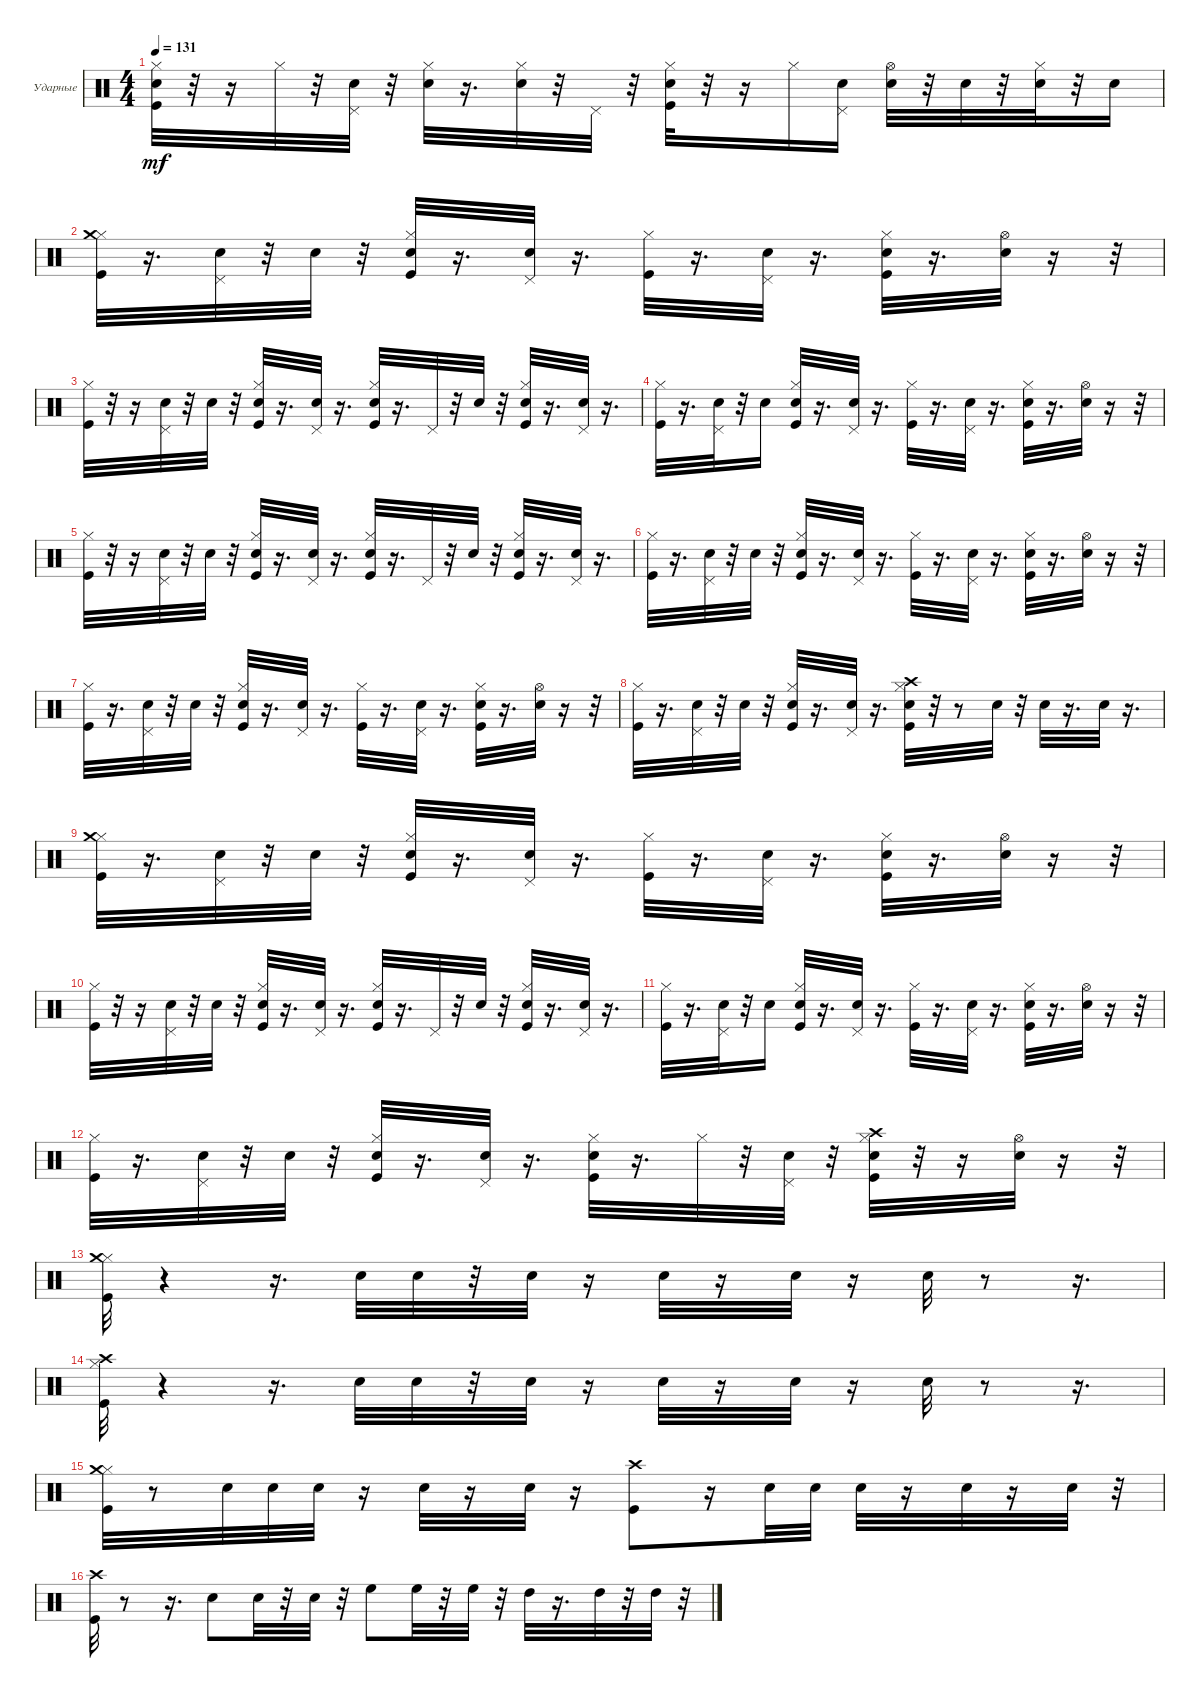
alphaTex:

\bracketExtendMode groupsimilarinstruments
\firstSystemTrackNameOrientation horizontal
\otherSystemsTrackNameOrientation horizontal
\track ("Ударные" "Ударные") {instrument percussion}
\staff {score}
\articulation defaults
\ts (4 4)
\tempo 131
\clef neutral
\ks c
("Snare (hit) 2" "Hi-Hat (closed)" "Kick (hit)").32{dy mf} r.32 r.16 "Hi-Hat (closed)".32 r.32 ("Snare (hit) 2" "Pedal Hi-Hat (hit)").32 r.32 ("Snare (hit) 2" "Hi-Hat (closed)").32 r.16{d} ("Snare (hit) 2" "Hi-Hat (closed)").32 r.32 "Pedal Hi-Hat (hit)".32 r.32 ("Snare (hit) 2" "Hi-Hat (closed)" "Kick (hit)").32 r.32 r.16 "Hi-Hat (closed)".16 ("Snare (hit) 2" "Pedal Hi-Hat (hit)").16 ("Snare (hit) 2" "Hi-Hat (open)").32 r.32 "Snare (hit) 2".32 r.32 ("Snare (hit) 2" "Hi-Hat (closed)").32 r.32 "Snare (hit) 2".16 |
("Kick (hit)" "Hi-Hat (closed)" "Crash medium (hit)").32 r.16{d} ("Snare (hit) 2" "Pedal Hi-Hat (hit)").32 r.32 "Snare (hit) 2".32 r.32 ("Hi-Hat (closed)" "Snare (hit) 2" "Kick (hit)").32 r.16{d} ("Snare (hit) 2" "Pedal Hi-Hat (hit)").32 r.16{d} ("Hi-Hat (closed)" "Kick (hit)").32 r.16{d} ("Snare (hit) 2" "Pedal Hi-Hat (hit)").32 r.16{d} ("Hi-Hat (closed)" "Snare (hit) 2" "Kick (hit)").32 r.16{d} ("Snare (hit) 2" "Hi-Hat (open)").32 r.16 r.32 |
("Hi-Hat (closed)" "Kick (hit)").32 r.32 r.16 ("Snare (hit) 2" "Pedal Hi-Hat (hit)").32 r.32 "Snare (hit) 2".32 r.32 ("Snare (hit) 2" "Hi-Hat (closed)" "Kick (hit)").32 r.16{d} ("Snare (hit) 2" "Pedal Hi-Hat (hit)").32 r.16{d} ("Snare (hit) 2" "Hi-Hat (closed)" "Kick (hit)").32 r.16{d} "Pedal Hi-Hat (hit)".32 r.32 "Snare (hit) 2".32 r.32 ("Snare (hit) 2" "Hi-Hat (closed)" "Kick (hit)").32 r.16{d} ("Snare (hit) 2" "Pedal Hi-Hat (hit)").32 r.16{d} |
("Hi-Hat (closed)" "Kick (hit)").32 r.16{d} ("Snare (hit) 2" "Pedal Hi-Hat (hit)").32 r.32 "Snare (hit) 2".16 ("Snare (hit) 2" "Hi-Hat (closed)" "Kick (hit)").32 r.16{d} ("Snare (hit) 2" "Pedal Hi-Hat (hit)").32 r.16{d} ("Kick (hit)" "Hi-Hat (closed)").32 r.16{d} ("Snare (hit) 2" "Pedal Hi-Hat (hit)").32 r.16{d} ("Hi-Hat (closed)" "Snare (hit) 2" "Kick (hit)").32 r.16{d} ("Snare (hit) 2" "Hi-Hat (open)").32 r.16 r.32 |
("Hi-Hat (closed)" "Kick (hit)").32 r.32 r.16 ("Snare (hit) 2" "Pedal Hi-Hat (hit)").32 r.32 "Snare (hit) 2".32 r.32 ("Snare (hit) 2" "Hi-Hat (closed)" "Kick (hit)").32 r.16{d} ("Snare (hit) 2" "Pedal Hi-Hat (hit)").32 r.16{d} ("Snare (hit) 2" "Hi-Hat (closed)" "Kick (hit)").32 r.16{d} "Pedal Hi-Hat (hit)".32 r.32 "Snare (hit) 2".32 r.32 ("Hi-Hat (closed)" "Snare (hit) 2" "Kick (hit)").32 r.16{d} ("Snare (hit) 2" "Pedal Hi-Hat (hit)").32 r.16{d} |
("Hi-Hat (closed)" "Kick (hit)").32 r.16{d} ("Snare (hit) 2" "Pedal Hi-Hat (hit)").32 r.32 "Snare (hit) 2".32 r.32 ("Snare (hit) 2" "Hi-Hat (closed)" "Kick (hit)").32 r.16{d} ("Snare (hit) 2" "Pedal Hi-Hat (hit)").32 r.16{d} ("Kick (hit)" "Hi-Hat (closed)").32 r.16{d} ("Snare (hit) 2" "Pedal Hi-Hat (hit)").32 r.16{d} ("Hi-Hat (closed)" "Snare (hit) 2" "Kick (hit)").32 r.16{d} ("Snare (hit) 2" "Hi-Hat (open)").32 r.16 r.32 |
("Hi-Hat (closed)" "Kick (hit)").32 r.16{d} ("Snare (hit) 2" "Pedal Hi-Hat (hit)").32 r.32 "Snare (hit) 2".32 r.32 ("Snare (hit) 2" "Hi-Hat (closed)" "Kick (hit)").32 r.16{d} ("Snare (hit) 2" "Pedal Hi-Hat (hit)").32 r.16{d} ("Hi-Hat (closed)" "Kick (hit)").32 r.16{d} ("Snare (hit) 2" "Pedal Hi-Hat (hit)").32 r.16{d} ("Hi-Hat (closed)" "Snare (hit) 2" "Kick (hit)").32 r.16{d} ("Snare (hit) 2" "Hi-Hat (open)").32 r.16 r.32 |
("Hi-Hat (closed)" "Kick (hit)").32 r.16{d} ("Snare (hit) 2" "Pedal Hi-Hat (hit)").32 r.32 "Snare (hit) 2".32 r.32 ("Snare (hit) 2" "Hi-Hat (closed)" "Kick (hit)").32 r.16{d} ("Snare (hit) 2" "Pedal Hi-Hat (hit)").32 r.16{d} ("Snare (hit) 2" "Crash high (hit)" "Hi-Hat (closed)" "Kick (hit)").32 r.32 r.8 "Snare (hit) 2".32 r.32 "Snare (hit) 2".32 r.16{d} "Snare (hit) 2".32 r.16{d} |
("Kick (hit)" "Hi-Hat (closed)" "Crash medium (hit)").32 r.16{d} ("Snare (hit) 2" "Pedal Hi-Hat (hit)").32 r.32 "Snare (hit) 2".32 r.32 ("Hi-Hat (closed)" "Snare (hit) 2" "Kick (hit)").32 r.16{d} ("Snare (hit) 2" "Pedal Hi-Hat (hit)").32 r.16{d} ("Hi-Hat (closed)" "Kick (hit)").32 r.16{d} ("Snare (hit) 2" "Pedal Hi-Hat (hit)").32 r.16{d} ("Hi-Hat (closed)" "Snare (hit) 2" "Kick (hit)").32 r.16{d} ("Snare (hit) 2" "Hi-Hat (open)").32 r.16 r.32 |
("Hi-Hat (closed)" "Kick (hit)").32 r.32 r.16 ("Snare (hit) 2" "Pedal Hi-Hat (hit)").32 r.32 "Snare (hit) 2".32 r.32 ("Snare (hit) 2" "Hi-Hat (closed)" "Kick (hit)").32 r.16{d} ("Snare (hit) 2" "Pedal Hi-Hat (hit)").32 r.16{d} ("Snare (hit) 2" "Hi-Hat (closed)" "Kick (hit)").32 r.16{d} "Pedal Hi-Hat (hit)".32 r.32 "Snare (hit) 2".32 r.32 ("Snare (hit) 2" "Hi-Hat (closed)" "Kick (hit)").32 r.16{d} ("Snare (hit) 2" "Pedal Hi-Hat (hit)").32 r.16{d} |
("Hi-Hat (closed)" "Kick (hit)").32 r.16{d} ("Snare (hit) 2" "Pedal Hi-Hat (hit)").32 r.32 "Snare (hit) 2".16 ("Snare (hit) 2" "Hi-Hat (closed)" "Kick (hit)").32 r.16{d} ("Snare (hit) 2" "Pedal Hi-Hat (hit)").32 r.16{d} ("Kick (hit)" "Hi-Hat (closed)").32 r.16{d} ("Snare (hit) 2" "Pedal Hi-Hat (hit)").32 r.16{d} ("Hi-Hat (closed)" "Snare (hit) 2" "Kick (hit)").32 r.16{d} ("Snare (hit) 2" "Hi-Hat (open)").32 r.16 r.32 |
("Hi-Hat (closed)" "Kick (hit)").32 r.16{d} ("Snare (hit) 2" "Pedal Hi-Hat (hit)").32 r.32 "Snare (hit) 2".32 r.32 ("Snare (hit) 2" "Hi-Hat (closed)" "Kick (hit)").32 r.16{d} ("Snare (hit) 2" "Pedal Hi-Hat (hit)").32 r.16{d} ("Snare (hit) 2" "Hi-Hat (closed)" "Kick (hit)").32 r.16{d} "Hi-Hat (closed)".32 r.32 ("Snare (hit) 2" "Pedal Hi-Hat (hit)").32 r.32 ("Crash high (hit)" "Hi-Hat (closed)" "Snare (hit) 2" "Kick (hit)").32 r.32 r.16 ("Snare (hit) 2" "Hi-Hat (open)").32 r.16 r.32 |
("Kick (hit)" "Hi-Hat (closed)" "Crash medium (hit)").32 r.4 r.16{d} "Snare (hit) 2".32 "Snare (hit) 2".32 r.32 "Snare (hit) 2".32 r.16 "Snare (hit) 2".32 r.16 "Snare (hit) 2".32 r.16 "Snare (hit) 2".32 r.8 r.16{d} |
("Kick (hit)" "Hi-Hat (closed)" "Crash high (hit)").32 r.4 r.16{d} "Snare (hit) 2".32 "Snare (hit) 2".32 r.32 "Snare (hit) 2".32 r.16 "Snare (hit) 2".32 r.16 "Snare (hit) 2".32 r.16 "Snare (hit) 2".32 r.8 r.16{d} |
("Kick (hit)" "Hi-Hat (closed)" "Crash medium (hit)").32 r.8 "Snare (hit) 2".32 "Snare (hit) 2".32 "Snare (hit) 2".32 r.16 "Snare (hit) 2".32 r.16 "Snare (hit) 2".32 r.16 ("Crash high (hit)" "Kick (hit)").8 r.16 "Snare (hit) 2".32 "Snare (hit) 2".32 "Snare (hit) 2".32 r.16 "Snare (hit) 2".32 r.16 "Snare (hit) 2".32 r.32 |
("Kick (hit)" "Crash high (hit)").32 r.8 r.16{d} "Snare (hit) 2".8 "Snare (hit) 2".32 r.32 "Snare (hit) 2".32 r.32 "High Floor Tom (hit)".8 "High Floor Tom (hit)".32 r.32 "High Floor Tom (hit)".32 r.32 "High Tom (hit)".32 r.16{d} "High Tom (hit)".32 r.32 "High Tom (hit)".32 r.32
